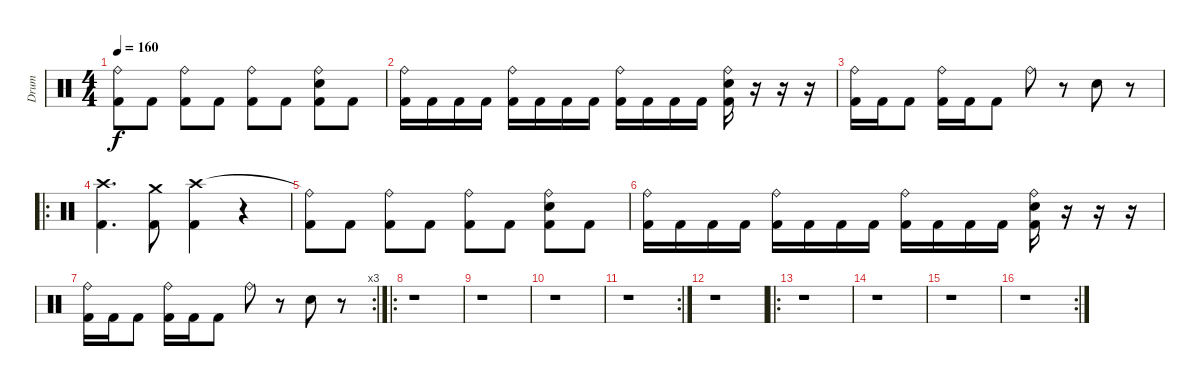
\track ("Drum" "Drum") {instrument percussion}
\staff {score}
\articulation defaults
\ts (4 4)
\tempo 160
\clef neutral
\ks c
("Ride (bell)" "Kick (hit) 2").8{dy f} "Kick (hit) 2".8 ("Ride (bell)" "Kick (hit) 2").8 "Kick (hit) 2".8 ("Ride (bell)" "Kick (hit) 2").8 "Kick (hit) 2".8 ("Ride (bell)" "Snare (hit) 2" "Kick (hit) 2").8 "Kick (hit) 2".8 |
("Ride (bell)" "Kick (hit) 2").16 "Kick (hit) 2".16 "Kick (hit) 2".16 "Kick (hit) 2".16 ("Ride (bell)" "Kick (hit) 2").16 "Kick (hit) 2".16 "Kick (hit) 2".16 "Kick (hit) 2".16 ("Ride (bell)" "Kick (hit) 2").16 "Kick (hit) 2".16 "Kick (hit) 2".16 "Kick (hit) 2".16 ("Ride (bell)" "Snare (hit) 2" "Kick (hit) 2").16 r.16 r.16 r.16 |
("Ride (bell)" "Kick (hit) 2").16 "Kick (hit) 2".16 "Kick (hit) 2".8 ("Ride (bell)" "Kick (hit) 2").16 "Kick (hit) 2".16 "Kick (hit) 2".8 "Ride (bell)".8 r.8 "Snare (hit) 2".8 r.8 |
\ro
("Crash high (hit)" "Kick (hit) 2").4{d} ("Crash medium (hit)" "Kick (hit) 2").8 ("Crash high (hit)" "Kick (hit) 2").4 r.4 |
("Ride (bell)"{t} "Kick (hit) 2").8 "Kick (hit) 2".8 ("Ride (bell)" "Kick (hit) 2").8 "Kick (hit) 2".8 ("Ride (bell)" "Kick (hit) 2").8 "Kick (hit) 2".8 ("Ride (bell)" "Snare (hit) 2" "Kick (hit) 2").8 "Kick (hit) 2".8 |
("Ride (bell)" "Kick (hit) 2").16 "Kick (hit) 2".16 "Kick (hit) 2".16 "Kick (hit) 2".16 ("Ride (bell)" "Kick (hit) 2").16 "Kick (hit) 2".16 "Kick (hit) 2".16 "Kick (hit) 2".16 ("Ride (bell)" "Kick (hit) 2").16 "Kick (hit) 2".16 "Kick (hit) 2".16 "Kick (hit) 2".16 ("Ride (bell)" "Snare (hit) 2" "Kick (hit) 2").16 r.16 r.16 r.16 |
\rc 3
("Ride (bell)" "Kick (hit) 2").16 "Kick (hit) 2".16 "Kick (hit) 2".8 ("Ride (bell)" "Kick (hit) 2").16 "Kick (hit) 2".16 "Kick (hit) 2".8 "Ride (bell)".8 r.8 "Snare (hit) 2".8 r.8 |
\ro
r.1 |
r.1 |
r.1 |
\rc 2
r.1 |
r.1 |
\ro
r.1 |
r.1 |
r.1 |
\rc 2
r.1
